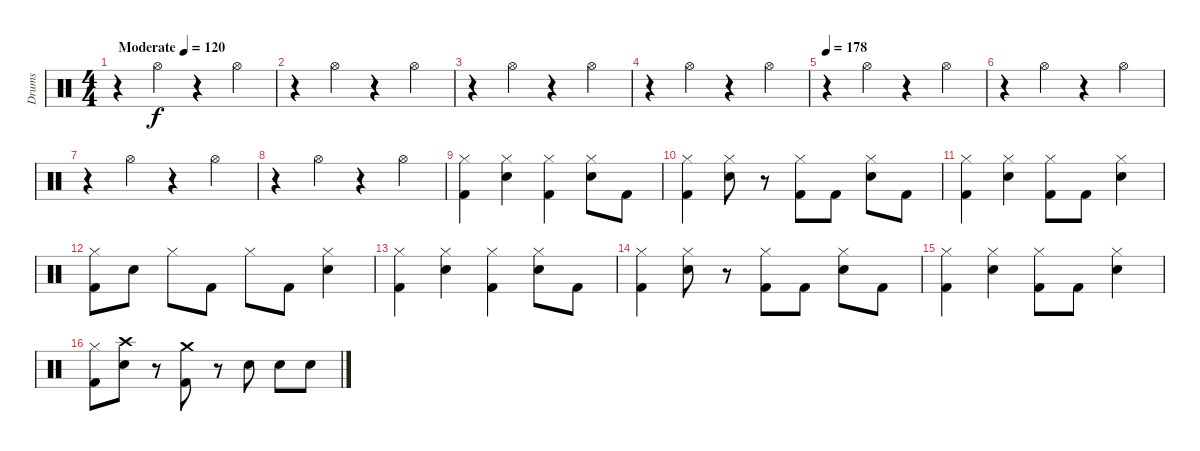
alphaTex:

\track ("Drums" "Drums") {instrument percussion}
\staff {score}
\articulation defaults
\ts (4 4)
\tempo (120 "Moderate")
\tempo 178
\tempo (120 "Moderate")
\clef neutral
\ks c
r.4{dy f} "Hi-Hat (open)".4 r.4 "Hi-Hat (open)".4 |
r.4 "Hi-Hat (open)".4 r.4 "Hi-Hat (open)".4 |
r.4 "Hi-Hat (open)".4 r.4 "Hi-Hat (open)".4 |
r.4 "Hi-Hat (open)".4 r.4 "Hi-Hat (open)".4 |
\tempo 178
r.4 "Hi-Hat (open)".4 r.4 "Hi-Hat (open)".4 |
r.4 "Hi-Hat (open)".4 r.4 "Hi-Hat (open)".4 |
r.4 "Hi-Hat (open)".4 r.4 "Hi-Hat (open)".4 |
r.4 "Hi-Hat (open)".4 r.4 "Hi-Hat (open)".4 |
("Hi-Hat (closed)" "Kick (hit) 2").4 ("Hi-Hat (closed)" "Electric Snare (hit)").4 ("Hi-Hat (closed)" "Kick (hit) 2").4 ("Hi-Hat (closed)" "Electric Snare (hit)").8 "Kick (hit) 2".8 |
("Hi-Hat (closed)" "Kick (hit) 2").4 ("Hi-Hat (closed)" "Electric Snare (hit)").8 r.8 ("Hi-Hat (closed)" "Kick (hit) 2").8 "Kick (hit) 2".8 ("Hi-Hat (closed)" "Electric Snare (hit)").8 "Kick (hit) 2".8 |
("Hi-Hat (closed)" "Kick (hit) 2").4 ("Hi-Hat (closed)" "Electric Snare (hit)").4 ("Hi-Hat (closed)" "Kick (hit) 2").8 "Kick (hit) 2".8 ("Hi-Hat (closed)" "Electric Snare (hit)").4 |
("Hi-Hat (closed)" "Kick (hit) 2").8 "Electric Snare (hit)".8 "Hi-Hat (closed)".8 "Kick (hit) 2".8 "Hi-Hat (closed)".8 "Kick (hit) 2".8 ("Hi-Hat (closed)" "Electric Snare (hit)").4 |
("Hi-Hat (closed)" "Kick (hit) 2").4 ("Hi-Hat (closed)" "Electric Snare (hit)").4 ("Hi-Hat (closed)" "Kick (hit) 2").4 ("Hi-Hat (closed)" "Electric Snare (hit)").8 "Kick (hit) 2".8 |
("Hi-Hat (closed)" "Kick (hit) 2").4 ("Hi-Hat (closed)" "Electric Snare (hit)").8 r.8 ("Hi-Hat (closed)" "Kick (hit) 2").8 "Kick (hit) 2".8 ("Hi-Hat (closed)" "Electric Snare (hit)").8 "Kick (hit) 2".8 |
("Hi-Hat (closed)" "Kick (hit) 2").4 ("Hi-Hat (closed)" "Electric Snare (hit)").4 ("Hi-Hat (closed)" "Kick (hit) 2").8 "Kick (hit) 2".8 ("Hi-Hat (closed)" "Electric Snare (hit)").4 |
("Hi-Hat (closed)" "Kick (hit) 2").8 ("Crash high (hit)" "Electric Snare (hit)").8 r.8 ("Crash medium (hit)" "Kick (hit) 2").8 r.8 "Electric Snare (hit)".8 "Electric Snare (hit)".8 "Electric Snare (hit)".8
